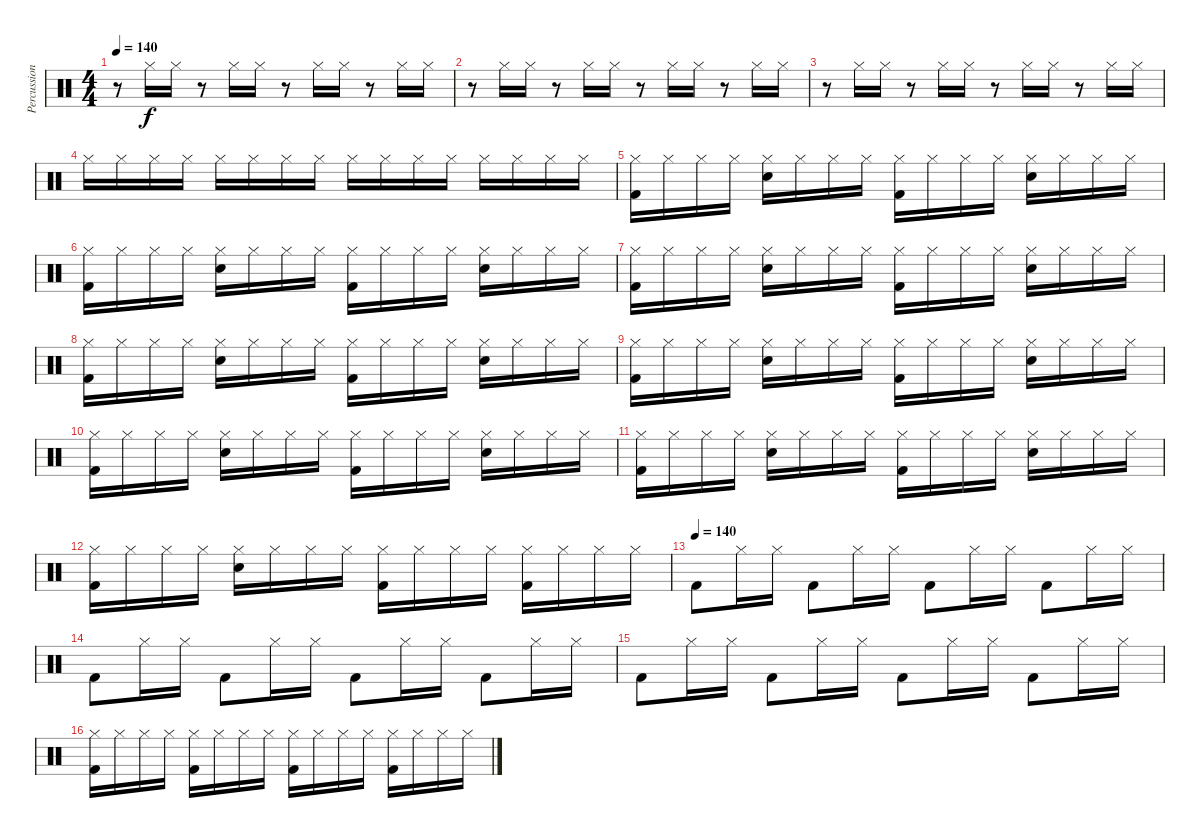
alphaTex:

\track ("Percussion" "Percussion") {instrument percussion}
\staff {score}
\articulation defaults
\ts (4 4)
\tempo 140
\clef neutral
\ks c
r.8{dy f} "Hi-Hat (closed)".16 "Hi-Hat (closed)".16 r.8 "Hi-Hat (closed)".16 "Hi-Hat (closed)".16 r.8 "Hi-Hat (closed)".16 "Hi-Hat (closed)".16 r.8 "Hi-Hat (closed)".16 "Hi-Hat (closed)".16 |
r.8 "Hi-Hat (closed)".16 "Hi-Hat (closed)".16 r.8 "Hi-Hat (closed)".16 "Hi-Hat (closed)".16 r.8 "Hi-Hat (closed)".16 "Hi-Hat (closed)".16 r.8 "Hi-Hat (closed)".16 "Hi-Hat (closed)".16 |
r.8 "Hi-Hat (closed)".16 "Hi-Hat (closed)".16 r.8 "Hi-Hat (closed)".16 "Hi-Hat (closed)".16 r.8 "Hi-Hat (closed)".16 "Hi-Hat (closed)".16 r.8 "Hi-Hat (closed)".16 "Hi-Hat (closed)".16 |
"Hi-Hat (closed)".16 "Hi-Hat (closed)".16 "Hi-Hat (closed)".16 "Hi-Hat (closed)".16 "Hi-Hat (closed)".16 "Hi-Hat (closed)".16 "Hi-Hat (closed)".16 "Hi-Hat (closed)".16 "Hi-Hat (closed)".16 "Hi-Hat (closed)".16 "Hi-Hat (closed)".16 "Hi-Hat (closed)".16 "Hi-Hat (closed)".16 "Hi-Hat (closed)".16 "Hi-Hat (closed)".16 "Hi-Hat (closed)".16 |
("Hi-Hat (closed)" "Kick (hit) 2").16 "Hi-Hat (closed)".16 "Hi-Hat (closed)".16 "Hi-Hat (closed)".16 ("Hi-Hat (closed)" "Snare (hit) 2").16 "Hi-Hat (closed)".16 "Hi-Hat (closed)".16 "Hi-Hat (closed)".16 ("Hi-Hat (closed)" "Kick (hit) 2").16 "Hi-Hat (closed)".16 "Hi-Hat (closed)".16 "Hi-Hat (closed)".16 ("Hi-Hat (closed)" "Snare (hit) 2").16 "Hi-Hat (closed)".16 "Hi-Hat (closed)".16 "Hi-Hat (closed)".16 |
("Hi-Hat (closed)" "Kick (hit) 2").16 "Hi-Hat (closed)".16 "Hi-Hat (closed)".16 "Hi-Hat (closed)".16 ("Hi-Hat (closed)" "Snare (hit) 2").16 "Hi-Hat (closed)".16 "Hi-Hat (closed)".16 "Hi-Hat (closed)".16 ("Hi-Hat (closed)" "Kick (hit) 2").16 "Hi-Hat (closed)".16 "Hi-Hat (closed)".16 "Hi-Hat (closed)".16 ("Hi-Hat (closed)" "Snare (hit) 2").16 "Hi-Hat (closed)".16 "Hi-Hat (closed)".16 "Hi-Hat (closed)".16 |
("Hi-Hat (closed)" "Kick (hit) 2").16 "Hi-Hat (closed)".16 "Hi-Hat (closed)".16 "Hi-Hat (closed)".16 ("Hi-Hat (closed)" "Snare (hit) 2").16 "Hi-Hat (closed)".16 "Hi-Hat (closed)".16 "Hi-Hat (closed)".16 ("Hi-Hat (closed)" "Kick (hit) 2").16 "Hi-Hat (closed)".16 "Hi-Hat (closed)".16 "Hi-Hat (closed)".16 ("Hi-Hat (closed)" "Snare (hit) 2").16 "Hi-Hat (closed)".16 "Hi-Hat (closed)".16 "Hi-Hat (closed)".16 |
("Hi-Hat (closed)" "Kick (hit) 2").16 "Hi-Hat (closed)".16 "Hi-Hat (closed)".16 "Hi-Hat (closed)".16 ("Hi-Hat (closed)" "Snare (hit) 2").16 "Hi-Hat (closed)".16 "Hi-Hat (closed)".16 "Hi-Hat (closed)".16 ("Hi-Hat (closed)" "Kick (hit) 2").16 "Hi-Hat (closed)".16 "Hi-Hat (closed)".16 "Hi-Hat (closed)".16 ("Hi-Hat (closed)" "Snare (hit) 2").16 "Hi-Hat (closed)".16 "Hi-Hat (closed)".16 "Hi-Hat (closed)".16 |
("Hi-Hat (closed)" "Kick (hit) 2").16 "Hi-Hat (closed)".16 "Hi-Hat (closed)".16 "Hi-Hat (closed)".16 ("Hi-Hat (closed)" "Snare (hit) 2").16 "Hi-Hat (closed)".16 "Hi-Hat (closed)".16 "Hi-Hat (closed)".16 ("Hi-Hat (closed)" "Kick (hit) 2").16 "Hi-Hat (closed)".16 "Hi-Hat (closed)".16 "Hi-Hat (closed)".16 ("Hi-Hat (closed)" "Snare (hit) 2").16 "Hi-Hat (closed)".16 "Hi-Hat (closed)".16 "Hi-Hat (closed)".16 |
("Hi-Hat (closed)" "Kick (hit) 2").16 "Hi-Hat (closed)".16 "Hi-Hat (closed)".16 "Hi-Hat (closed)".16 ("Hi-Hat (closed)" "Snare (hit) 2").16 "Hi-Hat (closed)".16 "Hi-Hat (closed)".16 "Hi-Hat (closed)".16 ("Hi-Hat (closed)" "Kick (hit) 2").16 "Hi-Hat (closed)".16 "Hi-Hat (closed)".16 "Hi-Hat (closed)".16 ("Hi-Hat (closed)" "Snare (hit) 2").16 "Hi-Hat (closed)".16 "Hi-Hat (closed)".16 "Hi-Hat (closed)".16 |
("Hi-Hat (closed)" "Kick (hit) 2").16 "Hi-Hat (closed)".16 "Hi-Hat (closed)".16 "Hi-Hat (closed)".16 ("Hi-Hat (closed)" "Snare (hit) 2").16 "Hi-Hat (closed)".16 "Hi-Hat (closed)".16 "Hi-Hat (closed)".16 ("Hi-Hat (closed)" "Kick (hit) 2").16 "Hi-Hat (closed)".16 "Hi-Hat (closed)".16 "Hi-Hat (closed)".16 ("Hi-Hat (closed)" "Snare (hit) 2").16 "Hi-Hat (closed)".16 "Hi-Hat (closed)".16 "Hi-Hat (closed)".16 |
("Hi-Hat (closed)" "Kick (hit) 2").16 "Hi-Hat (closed)".16 "Hi-Hat (closed)".16 "Hi-Hat (closed)".16 ("Hi-Hat (closed)" "Snare (hit) 2").16 "Hi-Hat (closed)".16 "Hi-Hat (closed)".16 "Hi-Hat (closed)".16 ("Hi-Hat (closed)" "Kick (hit) 2").16 "Hi-Hat (closed)".16 "Hi-Hat (closed)".16 "Hi-Hat (closed)".16 ("Hi-Hat (closed)" "Kick (hit) 2").16 "Hi-Hat (closed)".16 "Hi-Hat (closed)".16 "Hi-Hat (closed)".16 |
\tempo (140)
"Kick (hit) 2".8 "Hi-Hat (closed)".16 "Hi-Hat (closed)".16 "Kick (hit) 2".8 "Hi-Hat (closed)".16 "Hi-Hat (closed)".16 "Kick (hit) 2".8 "Hi-Hat (closed)".16 "Hi-Hat (closed)".16 "Kick (hit) 2".8 "Hi-Hat (closed)".16 "Hi-Hat (closed)".16 |
"Kick (hit) 2".8 "Hi-Hat (closed)".16 "Hi-Hat (closed)".16 "Kick (hit) 2".8 "Hi-Hat (closed)".16 "Hi-Hat (closed)".16 "Kick (hit) 2".8 "Hi-Hat (closed)".16 "Hi-Hat (closed)".16 "Kick (hit) 2".8 "Hi-Hat (closed)".16 "Hi-Hat (closed)".16 |
"Kick (hit) 2".8 "Hi-Hat (closed)".16 "Hi-Hat (closed)".16 "Kick (hit) 2".8 "Hi-Hat (closed)".16 "Hi-Hat (closed)".16 "Kick (hit) 2".8 "Hi-Hat (closed)".16 "Hi-Hat (closed)".16 "Kick (hit) 2".8 "Hi-Hat (closed)".16 "Hi-Hat (closed)".16 |
("Hi-Hat (closed)" "Kick (hit) 2").16 "Hi-Hat (closed)".16 "Hi-Hat (closed)".16 "Hi-Hat (closed)".16 ("Hi-Hat (closed)" "Kick (hit) 2").16 "Hi-Hat (closed)".16 "Hi-Hat (closed)".16 "Hi-Hat (closed)".16 ("Hi-Hat (closed)" "Kick (hit) 2").16 "Hi-Hat (closed)".16 "Hi-Hat (closed)".16 "Hi-Hat (closed)".16 ("Hi-Hat (closed)" "Kick (hit) 2").16 "Hi-Hat (closed)".16 "Hi-Hat (closed)".16 "Hi-Hat (closed)".16
